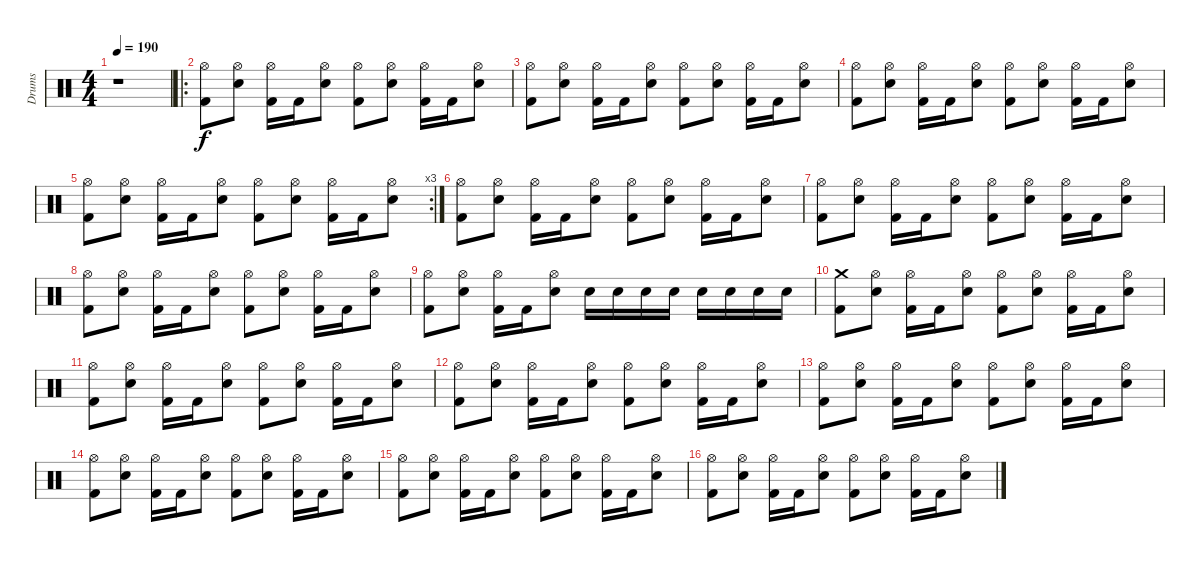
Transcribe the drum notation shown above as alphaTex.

\track ("Drums" "Drums") {instrument percussion}
\staff {score}
\articulation defaults
\ts (4 4)
\tempo 190
\clef neutral
\ks c
r.1{dy f} |
\ro
("Hi-Hat (open)" "Kick (hit) 2").8 ("Hi-Hat (open)" "Snare (hit) 2").8 ("Hi-Hat (open)" "Kick (hit) 2").16 "Kick (hit) 2".16 ("Hi-Hat (open)" "Snare (hit) 2").8 ("Hi-Hat (open)" "Kick (hit) 2").8 ("Hi-Hat (open)" "Snare (hit) 2").8 ("Hi-Hat (open)" "Kick (hit) 2").16 "Kick (hit) 2".16 ("Hi-Hat (open)" "Snare (hit) 2").8 |
("Hi-Hat (open)" "Kick (hit) 2").8 ("Hi-Hat (open)" "Snare (hit) 2").8 ("Hi-Hat (open)" "Kick (hit) 2").16 "Kick (hit) 2".16 ("Hi-Hat (open)" "Snare (hit) 2").8 ("Hi-Hat (open)" "Kick (hit) 2").8 ("Hi-Hat (open)" "Snare (hit) 2").8 ("Hi-Hat (open)" "Kick (hit) 2").16 "Kick (hit) 2".16 ("Hi-Hat (open)" "Snare (hit) 2").8 |
("Hi-Hat (open)" "Kick (hit) 2").8 ("Hi-Hat (open)" "Snare (hit) 2").8 ("Hi-Hat (open)" "Kick (hit) 2").16 "Kick (hit) 2".16 ("Hi-Hat (open)" "Snare (hit) 2").8 ("Hi-Hat (open)" "Kick (hit) 2").8 ("Hi-Hat (open)" "Snare (hit) 2").8 ("Hi-Hat (open)" "Kick (hit) 2").16 "Kick (hit) 2".16 ("Hi-Hat (open)" "Snare (hit) 2").8 |
\rc 3
("Hi-Hat (open)" "Kick (hit) 2").8 ("Hi-Hat (open)" "Snare (hit) 2").8 ("Hi-Hat (open)" "Kick (hit) 2").16 "Kick (hit) 2".16 ("Hi-Hat (open)" "Snare (hit) 2").8 ("Hi-Hat (open)" "Kick (hit) 2").8 ("Hi-Hat (open)" "Snare (hit) 2").8 ("Hi-Hat (open)" "Kick (hit) 2").16 "Kick (hit) 2".16 ("Hi-Hat (open)" "Snare (hit) 2").8 |
("Hi-Hat (open)" "Kick (hit) 2").8 ("Hi-Hat (open)" "Snare (hit) 2").8 ("Hi-Hat (open)" "Kick (hit) 2").16 "Kick (hit) 2".16 ("Hi-Hat (open)" "Snare (hit) 2").8 ("Hi-Hat (open)" "Kick (hit) 2").8 ("Hi-Hat (open)" "Snare (hit) 2").8 ("Hi-Hat (open)" "Kick (hit) 2").16 "Kick (hit) 2".16 ("Hi-Hat (open)" "Snare (hit) 2").8 |
("Hi-Hat (open)" "Kick (hit) 2").8 ("Hi-Hat (open)" "Snare (hit) 2").8 ("Hi-Hat (open)" "Kick (hit) 2").16 "Kick (hit) 2".16 ("Hi-Hat (open)" "Snare (hit) 2").8 ("Hi-Hat (open)" "Kick (hit) 2").8 ("Hi-Hat (open)" "Snare (hit) 2").8 ("Hi-Hat (open)" "Kick (hit) 2").16 "Kick (hit) 2".16 ("Hi-Hat (open)" "Snare (hit) 2").8 |
("Hi-Hat (open)" "Kick (hit) 2").8 ("Hi-Hat (open)" "Snare (hit) 2").8 ("Hi-Hat (open)" "Kick (hit) 2").16 "Kick (hit) 2".16 ("Hi-Hat (open)" "Snare (hit) 2").8 ("Hi-Hat (open)" "Kick (hit) 2").8 ("Hi-Hat (open)" "Snare (hit) 2").8 ("Hi-Hat (open)" "Kick (hit) 2").16 "Kick (hit) 2".16 ("Hi-Hat (open)" "Snare (hit) 2").8 |
("Hi-Hat (open)" "Kick (hit) 2").8 ("Hi-Hat (open)" "Snare (hit) 2").8 ("Hi-Hat (open)" "Kick (hit) 2").16 "Kick (hit) 2".16 ("Hi-Hat (open)" "Snare (hit) 2").8 "Snare (hit) 2".16 "Snare (hit) 2".16 "Snare (hit) 2".16 "Snare (hit) 2".16 "Snare (hit) 2".16 "Snare (hit) 2".16 "Snare (hit) 2".16 "Snare (hit) 2".16 |
("Crash medium (hit)" "Kick (hit) 2").8 ("Hi-Hat (open)" "Snare (hit) 2").8 ("Hi-Hat (open)" "Kick (hit) 2").16 "Kick (hit) 2".16 ("Hi-Hat (open)" "Snare (hit) 2").8 ("Hi-Hat (open)" "Kick (hit) 2").8 ("Hi-Hat (open)" "Snare (hit) 2").8 ("Hi-Hat (open)" "Kick (hit) 2").16 "Kick (hit) 2".16 ("Hi-Hat (open)" "Snare (hit) 2").8 |
("Hi-Hat (open)" "Kick (hit) 2").8 ("Hi-Hat (open)" "Snare (hit) 2").8 ("Hi-Hat (open)" "Kick (hit) 2").16 "Kick (hit) 2".16 ("Hi-Hat (open)" "Snare (hit) 2").8 ("Hi-Hat (open)" "Kick (hit) 2").8 ("Hi-Hat (open)" "Snare (hit) 2").8 ("Hi-Hat (open)" "Kick (hit) 2").16 "Kick (hit) 2".16 ("Hi-Hat (open)" "Snare (hit) 2").8 |
("Hi-Hat (open)" "Kick (hit) 2").8 ("Hi-Hat (open)" "Snare (hit) 2").8 ("Hi-Hat (open)" "Kick (hit) 2").16 "Kick (hit) 2".16 ("Hi-Hat (open)" "Snare (hit) 2").8 ("Hi-Hat (open)" "Kick (hit) 2").8 ("Hi-Hat (open)" "Snare (hit) 2").8 ("Hi-Hat (open)" "Kick (hit) 2").16 "Kick (hit) 2".16 ("Hi-Hat (open)" "Snare (hit) 2").8 |
("Hi-Hat (open)" "Kick (hit) 2").8 ("Hi-Hat (open)" "Snare (hit) 2").8 ("Hi-Hat (open)" "Kick (hit) 2").16 "Kick (hit) 2".16 ("Hi-Hat (open)" "Snare (hit) 2").8 ("Hi-Hat (open)" "Kick (hit) 2").8 ("Hi-Hat (open)" "Snare (hit) 2").8 ("Hi-Hat (open)" "Kick (hit) 2").16 "Kick (hit) 2".16 ("Hi-Hat (open)" "Snare (hit) 2").8 |
("Hi-Hat (open)" "Kick (hit) 2").8 ("Hi-Hat (open)" "Snare (hit) 2").8 ("Hi-Hat (open)" "Kick (hit) 2").16 "Kick (hit) 2".16 ("Hi-Hat (open)" "Snare (hit) 2").8 ("Hi-Hat (open)" "Kick (hit) 2").8 ("Hi-Hat (open)" "Snare (hit) 2").8 ("Hi-Hat (open)" "Kick (hit) 2").16 "Kick (hit) 2".16 ("Hi-Hat (open)" "Snare (hit) 2").8 |
("Hi-Hat (open)" "Kick (hit) 2").8 ("Hi-Hat (open)" "Snare (hit) 2").8 ("Hi-Hat (open)" "Kick (hit) 2").16 "Kick (hit) 2".16 ("Hi-Hat (open)" "Snare (hit) 2").8 ("Hi-Hat (open)" "Kick (hit) 2").8 ("Hi-Hat (open)" "Snare (hit) 2").8 ("Hi-Hat (open)" "Kick (hit) 2").16 "Kick (hit) 2".16 ("Hi-Hat (open)" "Snare (hit) 2").8 |
("Hi-Hat (open)" "Kick (hit) 2").8 ("Hi-Hat (open)" "Snare (hit) 2").8 ("Hi-Hat (open)" "Kick (hit) 2").16 "Kick (hit) 2".16 ("Hi-Hat (open)" "Snare (hit) 2").8 ("Hi-Hat (open)" "Kick (hit) 2").8 ("Hi-Hat (open)" "Snare (hit) 2").8 ("Hi-Hat (open)" "Kick (hit) 2").16 "Kick (hit) 2".16 ("Hi-Hat (open)" "Snare (hit) 2").8
